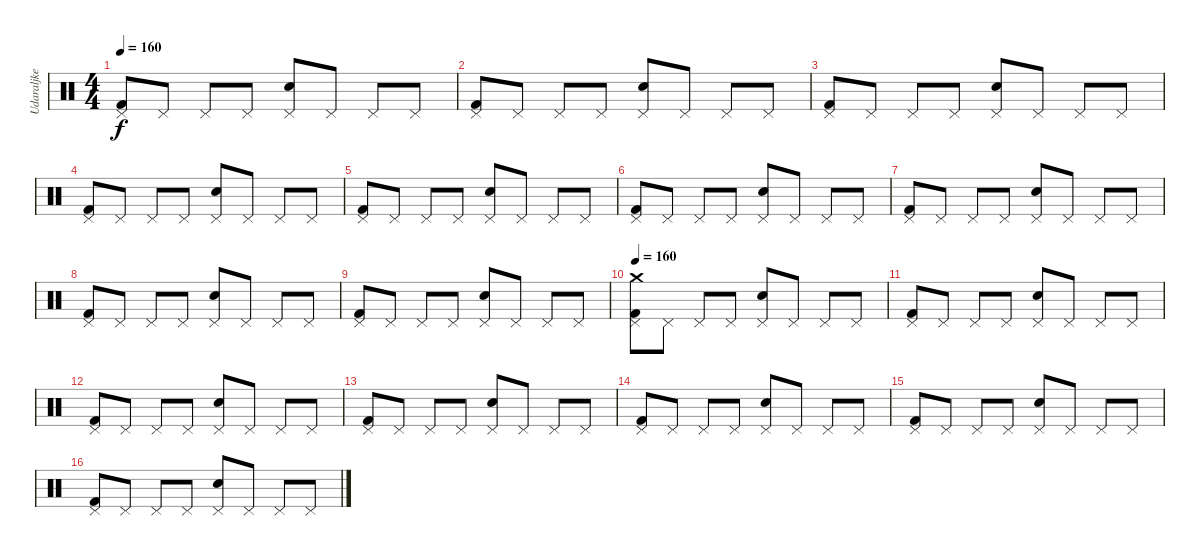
\track ("Udaraljke" "Udaraljke") {instrument percussion}
\staff {score}
\articulation defaults
\ts (4 4)
\tempo 160
\clef neutral
\ks c
("Pedal Hi-Hat (hit)" "Kick (hit) 2").8{dy f} "Pedal Hi-Hat (hit)".8 "Pedal Hi-Hat (hit)".8 "Pedal Hi-Hat (hit)".8 ("Pedal Hi-Hat (hit)" "Snare (hit) 2").8 "Pedal Hi-Hat (hit)".8 "Pedal Hi-Hat (hit)".8 "Pedal Hi-Hat (hit)".8 |
("Pedal Hi-Hat (hit)" "Kick (hit) 2").8 "Pedal Hi-Hat (hit)".8 "Pedal Hi-Hat (hit)".8 "Pedal Hi-Hat (hit)".8 ("Pedal Hi-Hat (hit)" "Snare (hit) 2").8 "Pedal Hi-Hat (hit)".8 "Pedal Hi-Hat (hit)".8 "Pedal Hi-Hat (hit)".8 |
("Pedal Hi-Hat (hit)" "Kick (hit) 2").8 "Pedal Hi-Hat (hit)".8 "Pedal Hi-Hat (hit)".8 "Pedal Hi-Hat (hit)".8 ("Pedal Hi-Hat (hit)" "Snare (hit) 2").8 "Pedal Hi-Hat (hit)".8 "Pedal Hi-Hat (hit)".8 "Pedal Hi-Hat (hit)".8 |
("Pedal Hi-Hat (hit)" "Kick (hit) 2").8 "Pedal Hi-Hat (hit)".8 "Pedal Hi-Hat (hit)".8 "Pedal Hi-Hat (hit)".8 ("Pedal Hi-Hat (hit)" "Snare (hit) 2").8 "Pedal Hi-Hat (hit)".8 "Pedal Hi-Hat (hit)".8 "Pedal Hi-Hat (hit)".8 |
("Pedal Hi-Hat (hit)" "Kick (hit) 2").8 "Pedal Hi-Hat (hit)".8 "Pedal Hi-Hat (hit)".8 "Pedal Hi-Hat (hit)".8 ("Pedal Hi-Hat (hit)" "Snare (hit) 2").8 "Pedal Hi-Hat (hit)".8 "Pedal Hi-Hat (hit)".8 "Pedal Hi-Hat (hit)".8 |
("Pedal Hi-Hat (hit)" "Kick (hit) 2").8 "Pedal Hi-Hat (hit)".8 "Pedal Hi-Hat (hit)".8 "Pedal Hi-Hat (hit)".8 ("Pedal Hi-Hat (hit)" "Snare (hit) 2").8 "Pedal Hi-Hat (hit)".8 "Pedal Hi-Hat (hit)".8 "Pedal Hi-Hat (hit)".8 |
("Pedal Hi-Hat (hit)" "Kick (hit) 2").8 "Pedal Hi-Hat (hit)".8 "Pedal Hi-Hat (hit)".8 "Pedal Hi-Hat (hit)".8 ("Pedal Hi-Hat (hit)" "Snare (hit) 2").8 "Pedal Hi-Hat (hit)".8 "Pedal Hi-Hat (hit)".8 "Pedal Hi-Hat (hit)".8 |
("Pedal Hi-Hat (hit)" "Kick (hit) 2").8 "Pedal Hi-Hat (hit)".8 "Pedal Hi-Hat (hit)".8 "Pedal Hi-Hat (hit)".8 ("Pedal Hi-Hat (hit)" "Snare (hit) 2").8 "Pedal Hi-Hat (hit)".8 "Pedal Hi-Hat (hit)".8 "Pedal Hi-Hat (hit)".8 |
("Pedal Hi-Hat (hit)" "Kick (hit) 2").8 "Pedal Hi-Hat (hit)".8 "Pedal Hi-Hat (hit)".8 "Pedal Hi-Hat (hit)".8 ("Pedal Hi-Hat (hit)" "Snare (hit) 2").8 "Pedal Hi-Hat (hit)".8 "Pedal Hi-Hat (hit)".8 "Pedal Hi-Hat (hit)".8 |
\tempo 160
("Pedal Hi-Hat (hit)" "Crash medium (hit)" "Kick (hit) 2").8 "Pedal Hi-Hat (hit)".8 "Pedal Hi-Hat (hit)".8 "Pedal Hi-Hat (hit)".8 ("Pedal Hi-Hat (hit)" "Snare (hit) 2").8 "Pedal Hi-Hat (hit)".8 "Pedal Hi-Hat (hit)".8 "Pedal Hi-Hat (hit)".8 |
("Pedal Hi-Hat (hit)" "Kick (hit) 2").8 "Pedal Hi-Hat (hit)".8 "Pedal Hi-Hat (hit)".8 "Pedal Hi-Hat (hit)".8 ("Pedal Hi-Hat (hit)" "Snare (hit) 2").8 "Pedal Hi-Hat (hit)".8 "Pedal Hi-Hat (hit)".8 "Pedal Hi-Hat (hit)".8 |
("Pedal Hi-Hat (hit)" "Kick (hit) 2").8 "Pedal Hi-Hat (hit)".8 "Pedal Hi-Hat (hit)".8 "Pedal Hi-Hat (hit)".8 ("Pedal Hi-Hat (hit)" "Snare (hit) 2").8 "Pedal Hi-Hat (hit)".8 "Pedal Hi-Hat (hit)".8 "Pedal Hi-Hat (hit)".8 |
("Pedal Hi-Hat (hit)" "Kick (hit) 2").8 "Pedal Hi-Hat (hit)".8 "Pedal Hi-Hat (hit)".8 "Pedal Hi-Hat (hit)".8 ("Pedal Hi-Hat (hit)" "Snare (hit) 2").8 "Pedal Hi-Hat (hit)".8 "Pedal Hi-Hat (hit)".8 "Pedal Hi-Hat (hit)".8 |
("Pedal Hi-Hat (hit)" "Kick (hit) 2").8 "Pedal Hi-Hat (hit)".8 "Pedal Hi-Hat (hit)".8 "Pedal Hi-Hat (hit)".8 ("Pedal Hi-Hat (hit)" "Snare (hit) 2").8 "Pedal Hi-Hat (hit)".8 "Pedal Hi-Hat (hit)".8 "Pedal Hi-Hat (hit)".8 |
("Pedal Hi-Hat (hit)" "Kick (hit) 2").8 "Pedal Hi-Hat (hit)".8 "Pedal Hi-Hat (hit)".8 "Pedal Hi-Hat (hit)".8 ("Pedal Hi-Hat (hit)" "Snare (hit) 2").8 "Pedal Hi-Hat (hit)".8 "Pedal Hi-Hat (hit)".8 "Pedal Hi-Hat (hit)".8 |
("Pedal Hi-Hat (hit)" "Kick (hit) 2").8 "Pedal Hi-Hat (hit)".8 "Pedal Hi-Hat (hit)".8 "Pedal Hi-Hat (hit)".8 ("Pedal Hi-Hat (hit)" "Snare (hit) 2").8 "Pedal Hi-Hat (hit)".8 "Pedal Hi-Hat (hit)".8 "Pedal Hi-Hat (hit)".8
